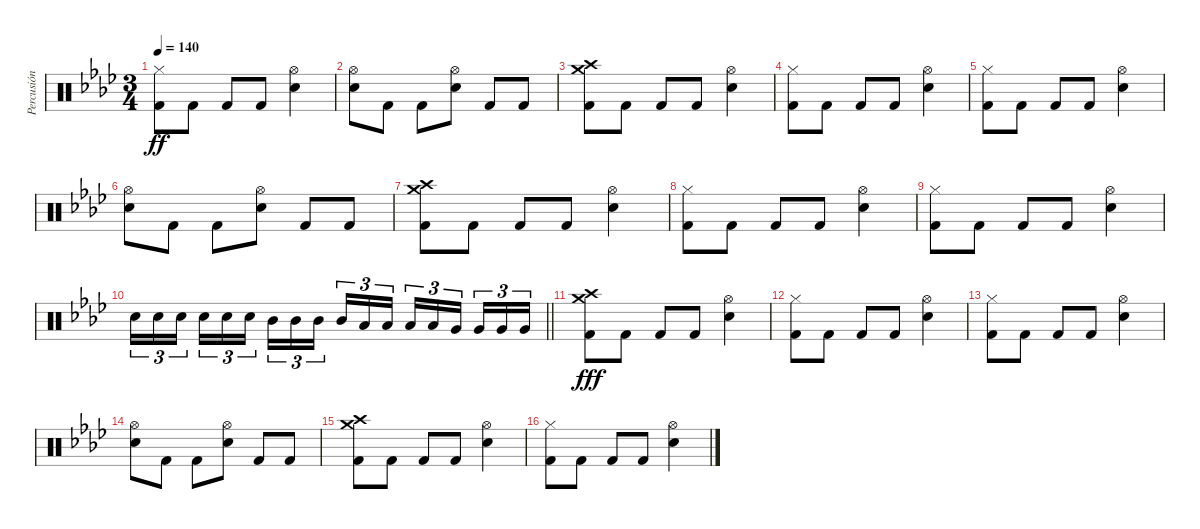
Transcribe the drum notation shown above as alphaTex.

\track ("Percusión" "Percusión") {instrument percussion}
\staff {score}
\articulation defaults
\ts (3 4)
\tempo 140
\clef neutral
\ks fminor
("Hi-Hat (closed)" "Kick (hit) 2").8{dy ff} "Kick (hit) 2".8 "Kick (hit) 2".8 "Kick (hit) 2".8 ("Hi-Hat (open)" "Snare (hit) 2").4 |
("Hi-Hat (open)" "Snare (hit) 2").8 "Kick (hit) 2".8 "Kick (hit) 2".8 ("Hi-Hat (open)" "Snare (hit) 2").8 "Kick (hit) 2".8 "Kick (hit) 2".8 |
("Crash high (hit)" "Crash medium (hit)" "Kick (hit) 2").8 "Kick (hit) 2".8 "Kick (hit) 2".8 "Kick (hit) 2".8 ("Hi-Hat (open)" "Snare (hit) 2").4 |
("Hi-Hat (closed)" "Kick (hit) 2").8 "Kick (hit) 2".8 "Kick (hit) 2".8 "Kick (hit) 2".8 ("Hi-Hat (open)" "Snare (hit) 2").4 |
("Hi-Hat (closed)" "Kick (hit) 2").8 "Kick (hit) 2".8 "Kick (hit) 2".8 "Kick (hit) 2".8 ("Hi-Hat (open)" "Snare (hit) 2").4 |
("Hi-Hat (open)" "Snare (hit) 2").8 "Kick (hit) 2".8 "Kick (hit) 2".8 ("Hi-Hat (open)" "Snare (hit) 2").8 "Kick (hit) 2".8 "Kick (hit) 2".8 |
("Crash high (hit)" "Crash medium (hit)" "Kick (hit) 2").8 "Kick (hit) 2".8 "Kick (hit) 2".8 "Kick (hit) 2".8 ("Hi-Hat (open)" "Snare (hit) 2").4 |
("Hi-Hat (closed)" "Kick (hit) 2").8 "Kick (hit) 2".8 "Kick (hit) 2".8 "Kick (hit) 2".8 ("Hi-Hat (open)" "Snare (hit) 2").4 |
("Hi-Hat (closed)" "Kick (hit) 2").8 "Kick (hit) 2".8 "Kick (hit) 2".8 "Kick (hit) 2".8 ("Hi-Hat (open)" "Snare (hit) 2").4 |
\barLineRight lightlight "Snare (hit) 2".16{tu (3 2)} "Snare (hit) 2".16{tu (3 2)} "Snare (hit) 2".16{tu (3 2) beam splitsecondary} "Snare (hit) 2".16{tu (3 2)} "Snare (hit) 2".16{tu (3 2)} "Snare (hit) 2".16{tu (3 2)} "Mid Tom (hit)".16{tu (3 2)} "Mid Tom (hit)".16{tu (3 2)} "Mid Tom (hit)".16{tu (3 2) beam splitsecondary} "Mid Tom (hit)".16{tu (3 2)} "Low Tom (hit)".16{tu (3 2)} "Low Tom (hit)".16{tu (3 2)} "Low Tom (hit)".16{tu (3 2)} "Low Tom (hit)".16{tu (3 2)} "Very Low Tom (hit)".16{tu (3 2) beam splitsecondary} "Very Low Tom (hit)".16{tu (3 2)} "Very Low Tom (hit)".16{tu (3 2)} "Very Low Tom (hit)".16{tu (3 2)}
|
("Crash high (hit)" "Crash medium (hit)" "Kick (hit) 2").8{dy fff} "Kick (hit) 2".8 "Kick (hit) 2".8 "Kick (hit) 2".8 ("Hi-Hat (open)" "Snare (hit) 2").4 |
("Hi-Hat (closed)" "Kick (hit) 2").8 "Kick (hit) 2".8 "Kick (hit) 2".8 "Kick (hit) 2".8 ("Hi-Hat (open)" "Snare (hit) 2").4 |
("Hi-Hat (closed)" "Kick (hit) 2").8 "Kick (hit) 2".8 "Kick (hit) 2".8 "Kick (hit) 2".8 ("Hi-Hat (open)" "Snare (hit) 2").4 |
("Hi-Hat (open)" "Snare (hit) 2").8 "Kick (hit) 2".8 "Kick (hit) 2".8 ("Hi-Hat (open)" "Snare (hit) 2").8 "Kick (hit) 2".8 "Kick (hit) 2".8 |
("Crash high (hit)" "Crash medium (hit)" "Kick (hit) 2").8 "Kick (hit) 2".8 "Kick (hit) 2".8 "Kick (hit) 2".8 ("Hi-Hat (open)" "Snare (hit) 2").4 |
("Hi-Hat (closed)" "Kick (hit) 2").8 "Kick (hit) 2".8 "Kick (hit) 2".8 "Kick (hit) 2".8 ("Hi-Hat (open)" "Snare (hit) 2").4
